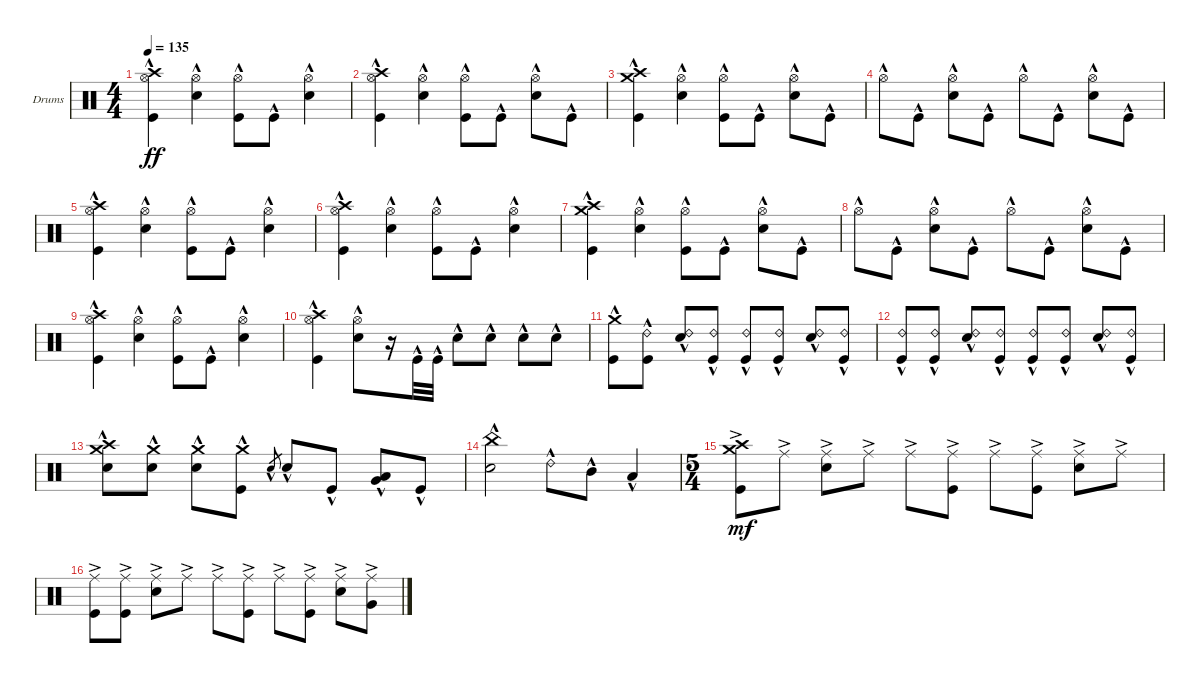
\defaultSystemsLayout 4
\bracketExtendMode groupsimilarinstruments
\firstSystemTrackNameOrientation horizontal
\otherSystemsTrackNameOrientation horizontal
\track ("Drumkit" "Drums") {instrument percussion}
\staff {score}
\articulation defaults
\ts (4 4)
\tempo 135
\clef neutral
\ks c
("Kick (hit)"{hac} "Crash high (hit)"{hac} "Hi-Hat (open)"{hac}).4{dy ff} ("Snare (hit) 2"{hac} "Hi-Hat (open)"{hac}).4 ("Kick (hit)"{hac} "Hi-Hat (open)"{hac}).8 "Kick (hit)"{hac}.8 ("Snare (hit) 2"{hac} "Hi-Hat (open)"{hac}).4 |
("Kick (hit)"{hac} "Crash high (hit)"{hac} "Hi-Hat (open)"{hac}).4 ("Snare (hit) 2"{hac} "Hi-Hat (open)"{hac}).4 ("Kick (hit)"{hac} "Hi-Hat (open)"{hac}).8 "Kick (hit)"{hac}.8 ("Snare (hit) 2"{hac} "Hi-Hat (open)"{hac}).8 "Kick (hit)"{hac}.8 |
("Kick (hit)"{hac} "Crash high (hit)"{hac} "Crash medium (hit)"{hac}).4 ("Hi-Hat (open)"{hac} "Snare (hit) 2"{hac}).4 ("Kick (hit)"{hac} "Hi-Hat (open)"{hac}).8 "Kick (hit)"{hac}.8 ("Snare (hit) 2"{hac} "Hi-Hat (open)"{hac}).8 "Kick (hit)"{hac}.8 |
"Hi-Hat (open)"{hac}.8 "Kick (hit)"{hac}.8 ("Hi-Hat (open)"{hac} "Snare (hit) 2"{hac}).8 "Kick (hit)"{hac}.8 "Hi-Hat (open)"{hac}.8 "Kick (hit)"{hac}.8 ("Snare (hit) 2"{hac} "Hi-Hat (open)"{hac}).8 "Kick (hit)"{hac}.8 |
("Kick (hit)"{hac} "Crash high (hit)"{hac} "Hi-Hat (open)"{hac}).4 ("Snare (hit) 2"{hac} "Hi-Hat (open)"{hac}).4 ("Kick (hit)"{hac} "Hi-Hat (open)"{hac}).8 "Kick (hit)"{hac}.8 ("Snare (hit) 2"{hac} "Hi-Hat (open)"{hac}).4 |
("Kick (hit)"{hac} "Crash high (hit)"{hac} "Hi-Hat (open)"{hac}).4 ("Snare (hit) 2"{hac} "Hi-Hat (open)"{hac}).4 ("Kick (hit)"{hac} "Hi-Hat (open)"{hac}).8 "Kick (hit)"{hac}.8 ("Snare (hit) 2"{hac} "Hi-Hat (open)"{hac}).4 |
("Kick (hit)"{hac} "Crash high (hit)"{hac} "Crash medium (hit)"{hac}).4 ("Hi-Hat (open)"{hac} "Snare (hit) 2"{hac}).4 ("Kick (hit)"{hac} "Hi-Hat (open)"{hac}).8 "Kick (hit)"{hac}.8 ("Snare (hit) 2"{hac} "Hi-Hat (open)"{hac}).8 "Kick (hit)"{hac}.8 |
"Hi-Hat (open)"{hac}.8 "Kick (hit)"{hac}.8 ("Hi-Hat (open)"{hac} "Snare (hit) 2"{hac}).8 "Kick (hit)"{hac}.8 "Hi-Hat (open)"{hac}.8 "Kick (hit)"{hac}.8 ("Snare (hit) 2"{hac} "Hi-Hat (open)"{hac}).8 "Kick (hit)"{hac}.8 |
("Kick (hit)"{hac} "Crash high (hit)"{hac} "Hi-Hat (open)"{hac}).4 ("Snare (hit) 2"{hac} "Hi-Hat (open)"{hac}).4 ("Kick (hit)"{hac} "Hi-Hat (open)"{hac}).8 "Kick (hit)"{hac}.8 ("Snare (hit) 2"{hac} "Hi-Hat (open)"{hac}).4 |
("Kick (hit)"{hac} "Crash high (hit)"{hac} "Hi-Hat (open)"{hac}).4 ("Snare (hit) 2"{hac} "Hi-Hat (open)"{hac}).8 r.16 "Kick (hit)"{hac}.32 "Kick (hit)"{hac}.32 "Snare (hit) 2"{hac}.8 "Snare (hit) 2"{hac}.8 "Snare (hit) 2"{hac}.8 "Snare (hit) 2"{hac}.8 |
("Kick (hit)"{hac} "Crash medium (hit)"{hac}).8 ("Kick (hit)"{hac} "Ride (bell) 2"{hac}).8 ("Snare (hit) 2"{hac} "Ride (bell) 2"{hac}).8 ("Kick (hit)"{hac} "Ride (bell) 2"{hac}).8 ("Kick (hit)"{hac} "Ride (bell) 2"{hac}).8 ("Kick (hit)"{hac} "Ride (bell) 2"{hac}).8 ("Snare (hit) 2"{hac} "Ride (bell) 2"{hac}).8 ("Kick (hit)"{hac} "Ride (bell) 2"{hac}).8 |
("Kick (hit)"{hac} "Ride (bell) 2"{hac}).8 ("Kick (hit)"{hac} "Ride (bell) 2"{hac}).8 ("Snare (hit) 2"{hac} "Ride (bell) 2"{hac}).8 ("Kick (hit)"{hac} "Ride (bell) 2"{hac}).8 ("Kick (hit)"{hac} "Ride (bell) 2"{hac}).8 ("Kick (hit)"{hac} "Ride (bell) 2"{hac}).8 ("Snare (hit) 2"{hac} "Ride (bell) 2"{hac}).8 ("Kick (hit)"{hac} "Ride (bell) 2"{hac}).8 |
("Snare (hit) 2"{hac} "Crash medium (hit)"{hac} "Crash high (hit)"{hac}).8 ("Snare (hit) 2"{hac} "Crash medium (hit)"{hac}).8 ("Snare (hit) 2"{hac} "Crash medium (hit)"{hac}).8 ("Kick (hit)"{hac} "Crash medium (hit)"{hac}).8 "Snare (hit) 2"{hac}.8{gr} "Snare (hit) 2"{hac}.8 "Kick (hit)"{hac}.8 ("Low Tom (hit)"{hac} "Very Low Tom (hit)"{hac}).8 "Kick (hit)"{hac}.8 |
("Snare (hit) 2"{hac} "China (hit)"{hac}).2 "Ride (bell) 2"{hac}.8 "Mid Tom (hit)"{hac}.8 "Low Tom (hit)"{hac}.4 |
\ts (5 4)
("Kick (hit)"{ac} "Crash medium (hit)"{ac} "Crash high (hit)"{ac}).8{dy mf} "Ride (middle)"{ac}.8 ("Ride (middle)"{ac} "Snare (hit) 2"{ac}).8 "Ride (middle)"{ac}.8 "Ride (middle)"{ac}.8 ("Ride (middle)"{ac} "Kick (hit)"{ac}).8 "Ride (middle)"{ac}.8 ("Ride (middle)"{ac} "Kick (hit)"{ac}).8 ("Ride (middle)"{ac} "Snare (hit) 2"{ac}).8 "Ride (middle)"{ac}.8 |
("Kick (hit)"{ac} "Ride (middle)"{ac}).8 ("Ride (middle)"{ac} "Kick (hit)"{ac}).8 ("Ride (middle)"{ac} "Snare (hit) 2"{ac}).8 "Ride (middle)"{ac}.8 "Ride (middle)"{ac}.8 ("Ride (middle)"{ac} "Kick (hit)"{ac}).8 "Ride (middle)"{ac}.8 ("Ride (middle)"{ac} "Kick (hit)"{ac}).8 ("Ride (middle)"{ac} "Snare (hit) 2"{ac}).8 ("Ride (middle)"{ac} "Very Low Tom (hit)"{ac}).8
